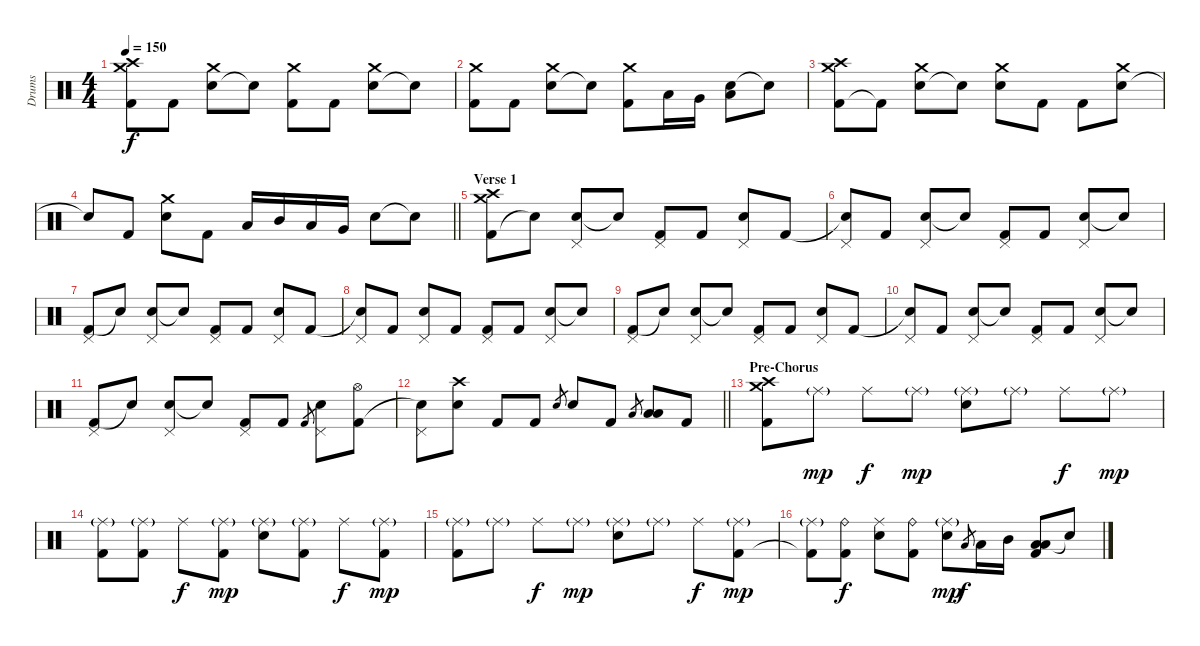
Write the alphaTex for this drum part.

\track ("Drums" "Drums") {instrument percussion}
\staff {score}
\articulation defaults
\ts (4 4)
\tempo 150
\clef neutral
\ks c
("Kick (hit) 2" "Crash medium (hit)" "Crash high (hit)").8{dy f} "Kick (hit) 2".8 ("Electric Snare (hit)" "Crash medium (hit)").8 "Snare (hit)"{t}.8 ("Kick (hit) 2" "Crash medium (hit)").8 "Kick (hit) 2".8 ("Electric Snare (hit)" "Crash medium (hit)").8 "Snare (hit)"{t}.8 |
("Kick (hit) 2" "Crash medium (hit)").8 "Kick (hit) 2".8 ("Electric Snare (hit)" "Crash medium (hit)").8 "Snare (hit)"{t}.8 ("Kick (hit) 2" "Crash medium (hit)").8 "Low Tom (hit)".16 "Very Low Tom (hit)".16 ("Electric Snare (hit)" "Low Floor Tom (hit)").8 "Snare (hit)"{t}.8 |
("Kick (hit) 2" "Crash medium (hit)" "Crash high (hit)").8 "Kick (hit) 2"{t}.8 ("Electric Snare (hit)" "Crash medium (hit)").8 "Snare (hit)"{t}.8 ("Electric Snare (hit)" "Crash medium (hit)").8 "Kick (hit) 2".8 "Kick (hit) 2".8 ("Electric Snare (hit)" "Crash medium (hit)").8 |
\barLineRight lightlight "Electric Snare (hit)"{t}.8 "Kick (hit) 2".8
("Electric Snare (hit)" "Crash medium (hit)").8 "Kick (hit) 2".8 "Low Tom (hit)".16 "Mid Tom (hit)".16 "Low Tom (hit)".16 "Very Low Tom (hit)".16 "Electric Snare (hit)".8 "Snare (hit)"{t}.8 |
\section ("" "Verse 1")
("Kick (hit) 2" "Crash medium (hit)" "Crash high (hit)").8 "Snare (hit)"{t}.8 ("Electric Snare (hit)" "Pedal Hi-Hat (hit)").8 "Snare (hit)"{t}.8 ("Kick (hit) 2" "Pedal Hi-Hat (hit)").8 "Kick (hit) 2".8 ("Electric Snare (hit)" "Pedal Hi-Hat (hit)").8 "Kick (hit) 2".8 |
("Snare (hit)"{t} "Pedal Hi-Hat (hit)").8 "Kick (hit) 2".8 ("Electric Snare (hit)" "Pedal Hi-Hat (hit)").8 "Snare (hit)"{t}.8 ("Kick (hit) 2" "Pedal Hi-Hat (hit)").8 "Kick (hit) 2".8 ("Electric Snare (hit)" "Pedal Hi-Hat (hit)").8 "Snare (hit)"{t}.8 |
("Kick (hit) 2" "Pedal Hi-Hat (hit)").8 "Snare (hit)"{t}.8 ("Electric Snare (hit)" "Pedal Hi-Hat (hit)").8 "Snare (hit)"{t}.8 ("Kick (hit) 2" "Pedal Hi-Hat (hit)").8 "Kick (hit) 2".8 ("Electric Snare (hit)" "Pedal Hi-Hat (hit)").8 "Kick (hit) 2".8 |
("Snare (hit)"{t} "Pedal Hi-Hat (hit)").8 "Kick (hit) 2".8 ("Electric Snare (hit)" "Pedal Hi-Hat (hit)").8 "Kick (hit) 2".8 ("Kick (hit) 2" "Pedal Hi-Hat (hit)").8 "Kick (hit) 2".8 ("Electric Snare (hit)" "Pedal Hi-Hat (hit)").8 "Snare (hit)"{t}.8 |
("Kick (hit) 2" "Pedal Hi-Hat (hit)").8 "Snare (hit)"{t}.8 ("Electric Snare (hit)" "Pedal Hi-Hat (hit)").8 "Snare (hit)"{t}.8 ("Kick (hit) 2" "Pedal Hi-Hat (hit)").8 "Kick (hit) 2".8 ("Electric Snare (hit)" "Pedal Hi-Hat (hit)").8 "Kick (hit) 2".8 |
("Snare (hit)"{t} "Pedal Hi-Hat (hit)").8 "Kick (hit) 2".8 ("Electric Snare (hit)" "Pedal Hi-Hat (hit)").8 "Snare (hit)"{t}.8 ("Kick (hit) 2" "Pedal Hi-Hat (hit)").8 "Kick (hit) 2".8 ("Electric Snare (hit)" "Pedal Hi-Hat (hit)").8 "Snare (hit)"{t}.8 |
("Kick (hit) 2" "Pedal Hi-Hat (hit)").8 "Snare (hit)"{t}.8 ("Electric Snare (hit)" "Pedal Hi-Hat (hit)").8 "Snare (hit)"{t}.8 ("Kick (hit) 2" "Pedal Hi-Hat (hit)").8 "Kick (hit) 2".8 "Kick (hit) 2".8{gr} ("Electric Snare (hit)" "Pedal Hi-Hat (hit)").8 ("Kick (hit) 2" "Hi-Hat (open)").8 |
\barLineRight lightlight
("Snare (hit)"{t} "Pedal Hi-Hat (hit)").8 ("Electric Snare (hit)" "Crash high (hit)").8 "Kick (hit) 2".8 "Kick (hit) 2".8 "Electric Snare (hit)".8{gr} "Electric Snare (hit)".8 "Kick (hit) 2".8 "Low Tom (hit)".8{gr} ("Low Tom (hit)" "Low Floor Tom (hit)").8 "Kick (hit) 2".8 |
\section ("" "Pre-Chorus")
("Kick (hit) 2" "Crash medium (hit)" "Crash high (hit)").8 "Ride (middle)"{g}.8{dy mp} "Ride (middle)".8{dy f} "Ride (middle)"{g}.8{dy mp} ("Electric Snare (hit)" "Ride (middle)"{g}).8 "Ride (middle)"{g}.8 "Ride (middle)".8{dy f} "Ride (middle)"{g}.8{dy mp} |
("Kick (hit) 2" "Ride (middle)"{g}).8 ("Kick (hit) 2" "Ride (middle)"{g}).8 "Ride (middle)".8{dy f} ("Kick (hit) 2" "Ride (middle)"{g}).8{dy mp} ("Electric Snare (hit)" "Ride (middle)"{g}).8 ("Kick (hit) 2" "Ride (middle)"{g}).8 "Ride (middle)".8{dy f} ("Kick (hit) 2" "Ride (middle)"{g}).8{dy mp} |
("Kick (hit) 2" "Ride (middle)"{g}).8 "Ride (middle)"{g}.8 "Ride (middle)".8{dy f} "Ride (middle)"{g}.8{dy mp} ("Electric Snare (hit)" "Ride (middle)"{g}).8 "Ride (middle)"{g}.8 "Ride (middle)".8{dy f} ("Kick (hit) 2" "Ride (middle)"{g}).8{dy mp} |
("Kick (hit) 2"{t} "Ride (middle)"{g}).8 ("Kick (hit) 2" "Ride (bell)").8{dy f} ("Electric Snare (hit)" "Ride (middle)").8 ("Kick (hit) 2" "Ride (bell)").8 ("Electric Snare (hit)" "Ride (middle)"{g}).8{dy mp} "Low Tom (hit)".8{gr dy f} "Low Tom (hit)".16 "Mid Tom (hit)".16 ("Low Tom (hit)" "Low Floor Tom (hit)" "Kick (hit) 2").8 "Snare (hit)"{t}.8
